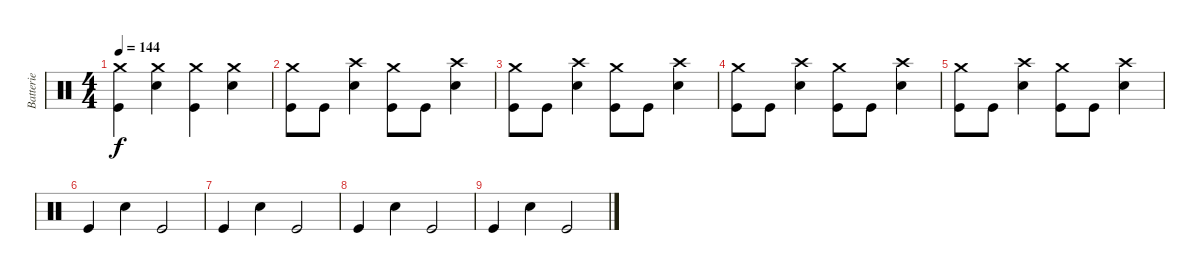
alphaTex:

\track ("Batterie" "Batterie") {instrument percussion}
\staff {score}
\articulation defaults
\ts (4 4)
\tempo 144
\clef neutral
\ks c
("Crash medium (hit)" "Kick (hit)").4{dy f} ("Crash medium (hit)" "Snare (hit) 2").4 ("Crash medium (hit)" "Kick (hit)").4 ("Crash medium (hit)" "Snare (hit) 2").4 |
("Crash medium (hit)" "Kick (hit)").8 "Kick (hit)".8 ("Crash high (hit)" "Snare (hit) 2").4 ("Crash medium (hit)" "Kick (hit)").8 "Kick (hit)".8 ("Crash high (hit)" "Snare (hit) 2").4 |
("Crash medium (hit)" "Kick (hit)").8 "Kick (hit)".8 ("Crash high (hit)" "Snare (hit) 2").4 ("Crash medium (hit)" "Kick (hit)").8 "Kick (hit)".8 ("Crash high (hit)" "Snare (hit) 2").4 |
("Crash medium (hit)" "Kick (hit)").8 "Kick (hit)".8 ("Crash high (hit)" "Snare (hit) 2").4 ("Crash medium (hit)" "Kick (hit)").8 "Kick (hit)".8 ("Crash high (hit)" "Snare (hit) 2").4 |
("Crash medium (hit)" "Kick (hit)").8 "Kick (hit)".8 ("Crash high (hit)" "Snare (hit) 2").4 ("Crash medium (hit)" "Kick (hit)").8 "Kick (hit)".8 ("Crash high (hit)" "Snare (hit) 2").4 |
"Kick (hit)".4 "Snare (hit) 2".4 "Kick (hit)".2 |
"Kick (hit)".4 "Snare (hit) 2".4 "Kick (hit)".2 |
"Kick (hit)".4 "Snare (hit) 2".4 "Kick (hit)".2 |
"Kick (hit)".4 "Snare (hit) 2".4 "Kick (hit)".2
